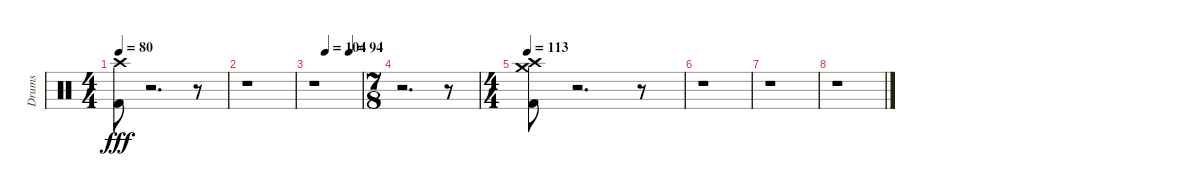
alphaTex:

\track ("Drums" "Drums") {instrument percussion}
\staff {score}
\articulation defaults
\ts (4 4)
\tempo 80
\clef neutral
\ks c
("Kick (hit) 2" "Crash high (hit)").8{dy fff} r.2{d} r.8 |
r.1 |
\tempo (104 0.25)
\tempo (94 0.75)
r.1 |
\ts (7 8)
r.2{d} r.8 |
\ts (4 4)
\tempo 113
("Kick (hit) 2" "Crash high (hit)" "Crash medium (hit)").8 r.2{d} r.8 |
r.1 |
r.1 |
r.1
